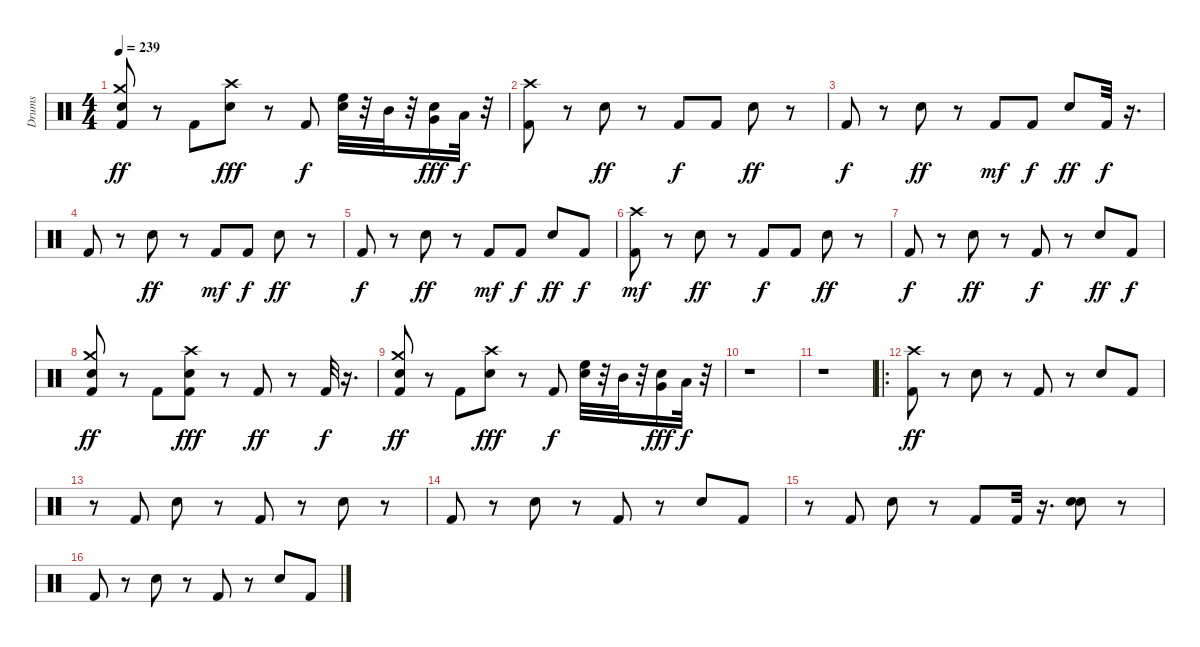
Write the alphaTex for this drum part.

\track ("Drums" "Drums") {instrument percussion}
\staff {score}
\articulation defaults
\ts (4 4)
\tempo 239
\clef neutral
\ks c
("Kick (hit) 2" "Crash medium (hit)" "Snare (hit) 2").8{dy ff} r.8 "Kick (hit) 2".8 ("Snare (hit) 2" "Crash high (hit)").8{dy fff} r.8 "Kick (hit) 2".8{dy f} ("High Floor Tom (hit)" "Snare (hit) 2").32 r.32 "Mid Tom (hit)".32 r.32 ("Snare (hit) 2" "Very Low Tom (hit)").16{dy fff} "Low Floor Tom (hit)".32{dy f} r.32 |
("Kick (hit) 2" "Crash high (hit)").8 r.8 "Snare (hit) 2".8{dy ff} r.8 "Kick (hit) 2".8{dy f} "Kick (hit) 2".8 "Snare (hit) 2".8{dy ff} r.8 |
"Kick (hit) 2".8{dy f} r.8 "Snare (hit) 2".8{dy ff} r.8 "Kick (hit) 2".8{dy mf} "Kick (hit) 2".8{dy f} "Snare (hit) 2".8{dy ff} "Kick (hit) 2".32{dy f} r.16{d} |
"Kick (hit) 2".8 r.8 "Snare (hit) 2".8{dy ff} r.8 "Kick (hit) 2".8{dy mf} "Kick (hit) 2".8{dy f} "Snare (hit) 2".8{dy ff} r.8 |
"Kick (hit) 2".8{dy f} r.8 "Snare (hit) 2".8{dy ff} r.8 "Kick (hit) 2".8{dy mf} "Kick (hit) 2".8{dy f} "Snare (hit) 2".8{dy ff} "Kick (hit) 2".8{dy f} |
("Kick (hit) 2" "Crash high (hit)").8{dy mf} r.8 "Snare (hit) 2".8{dy ff} r.8 "Kick (hit) 2".8{dy f} "Kick (hit) 2".8 "Snare (hit) 2".8{dy ff} r.8 |
"Kick (hit) 2".8{dy f} r.8 "Snare (hit) 2".8{dy ff} r.8 "Kick (hit) 2".8{dy f} r.8 "Snare (hit) 2".8{dy ff} "Kick (hit) 2".8{dy f} |
("Kick (hit) 2" "Crash medium (hit)" "Snare (hit) 2").8{dy ff} r.8 "Kick (hit) 2".8 ("Crash high (hit)" "Kick (hit) 2" "Snare (hit) 2").8{dy fff} r.8 "Kick (hit) 2".8{dy ff} r.8 "Kick (hit) 2".32{dy f} r.16{d} |
("Kick (hit) 2" "Crash medium (hit)" "Snare (hit) 2").8{dy ff} r.8 "Kick (hit) 2".8 ("Snare (hit) 2" "Crash high (hit)").8{dy fff} r.8 "Kick (hit) 2".8{dy f} ("High Floor Tom (hit)" "Snare (hit) 2").32 r.32 "Mid Tom (hit)".32 r.32 ("Snare (hit) 2" "Very Low Tom (hit)").16{dy fff} "Low Floor Tom (hit)".32{dy f} r.32 |
r.1 |
r.1 |
\ro
("Kick (hit) 2" "Crash high (hit)").8{dy ff} r.8 "Snare (hit) 2".8 r.8 "Kick (hit) 2".8 r.8 "Snare (hit) 2".8 "Kick (hit) 2".8 |
r.8 "Kick (hit) 2".8 "Snare (hit) 2".8 r.8 "Kick (hit) 2".8 r.8 "Snare (hit) 2".8 r.8 |
"Kick (hit) 2".8 r.8 "Snare (hit) 2".8 r.8 "Kick (hit) 2".8 r.8 "Snare (hit) 2".8 "Kick (hit) 2".8 |
r.8 "Kick (hit) 2".8 "Snare (hit) 2".8 r.8 "Kick (hit) 2".8 "Kick (hit) 2".32 r.16{d} ("Electric Snare (hit)" "Snare (hit) 2").8 r.8 |
"Kick (hit) 2".8 r.8 "Snare (hit) 2".8 r.8 "Kick (hit) 2".8 r.8 "Snare (hit) 2".8 "Kick (hit) 2".8
